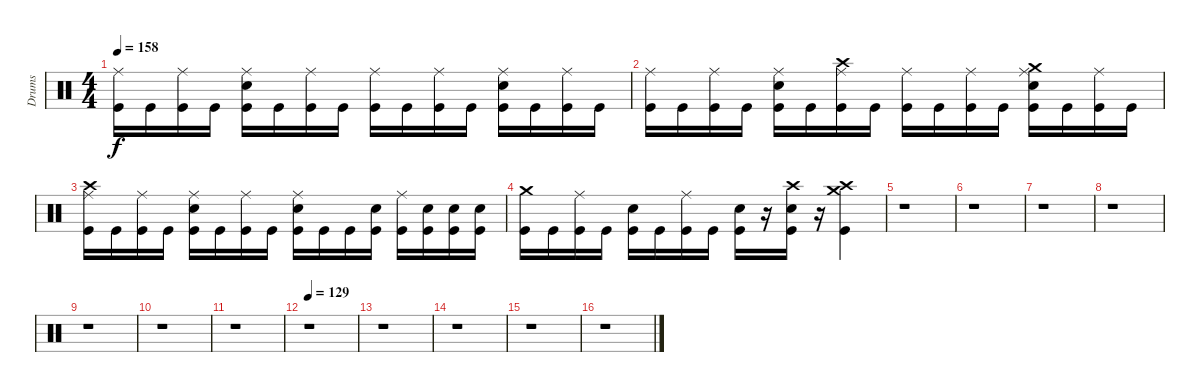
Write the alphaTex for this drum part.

\track ("Drums" "Drums") {instrument percussion}
\staff {score}
\articulation defaults
\ts (4 4)
\tempo 158
\clef neutral
\ks c
("Ride (middle)" "Kick (hit)").16{dy f} "Kick (hit)".16 ("Ride (middle)" "Kick (hit)").16 "Kick (hit)".16 ("Ride (middle)" "Electric Snare (hit)" "Kick (hit)").16 "Kick (hit)".16 ("Ride (middle)" "Kick (hit)").16 "Kick (hit)".16 ("Ride (middle)" "Kick (hit)").16 "Kick (hit)".16 ("Ride (middle)" "Kick (hit)").16 "Kick (hit)".16 ("Ride (middle)" "Electric Snare (hit)" "Kick (hit)").16 "Kick (hit)".16 ("Ride (middle)" "Kick (hit)").16 "Kick (hit)".16 |
("Ride (middle)" "Kick (hit)").16 "Kick (hit)".16 ("Ride (middle)" "Kick (hit)").16 "Kick (hit)".16 ("Ride (middle)" "Electric Snare (hit)" "Kick (hit)").16 "Kick (hit)".16 ("Crash high (hit)" "Ride (middle)" "Kick (hit)").16 "Kick (hit)".16 ("Ride (middle)" "Kick (hit)").16 "Kick (hit)".16 ("Ride (middle)" "Kick (hit)").16 "Kick (hit)".16 ("Crash medium (hit)" "Ride (middle)" "Electric Snare (hit)" "Kick (hit)").16 "Kick (hit)".16 ("Ride (middle)" "Kick (hit)").16 "Kick (hit)".16 |
("Crash high (hit)" "Ride (middle)" "Kick (hit)").16 "Kick (hit)".16 ("Ride (middle)" "Kick (hit)").16 "Kick (hit)".16 ("Ride (middle)" "Electric Snare (hit)" "Kick (hit)").16 "Kick (hit)".16 ("Ride (middle)" "Kick (hit)").16 "Kick (hit)".16 ("Ride (middle)" "Electric Snare (hit)" "Kick (hit)").16 "Kick (hit)".16 "Kick (hit)".16 ("Electric Snare (hit)" "Kick (hit)").16 ("Ride (middle)" "Kick (hit)").16 ("Electric Snare (hit)" "Kick (hit)").16 ("Electric Snare (hit)" "Kick (hit)").16 ("Electric Snare (hit)" "Kick (hit)").16 |
("Crash medium (hit)" "Kick (hit)").16 "Kick (hit)".16 ("Ride (middle)" "Kick (hit)").16 "Kick (hit)".16 ("Electric Snare (hit)" "Kick (hit)").16 "Kick (hit)".16 ("Ride (middle)" "Kick (hit)").16 "Kick (hit)".16 ("Electric Snare (hit)" "Kick (hit)").16 r.16 ("Electric Snare (hit)" "Crash high (hit)" "Kick (hit)").16 r.16 ("Crash high (hit)" "Crash medium (hit)" "Kick (hit)").4 |
r.1 |
r.1 |
r.1 |
r.1 |
r.1 |
r.1 |
r.1 |
\tempo 129
r.1 |
r.1 |
r.1 |
r.1 |
r.1
